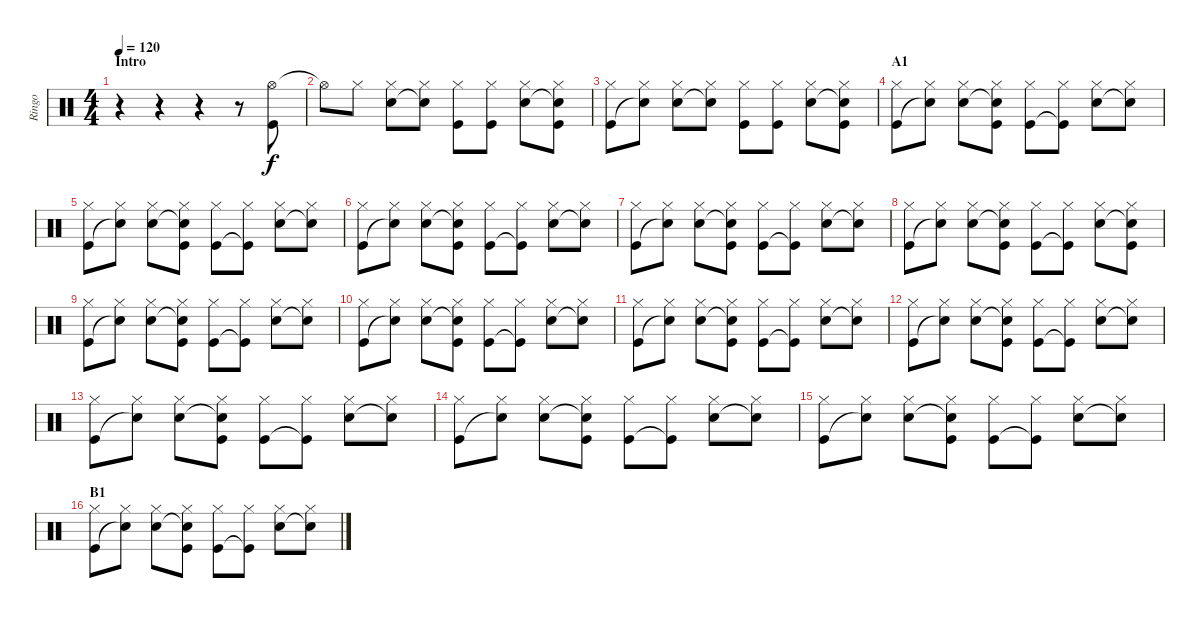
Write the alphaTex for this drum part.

\track ("Ringo" "Ringo") {instrument percussion}
\staff {score}
\articulation defaults
\ts (4 4)
\section ("" "Intro")
\tempo 120
\clef neutral
\ks c
r.4{dy f} r.4 r.4 r.8 ("Hi-Hat (open)" "Kick (hit)").8 |
"Hi-Hat (open)"{t}.8 "Hi-Hat (closed)".8 ("Hi-Hat (closed)" "Snare (hit) 2").8 ("Hi-Hat (closed)" "Snare (hit)"{t}).8 ("Hi-Hat (closed)" "Kick (hit)").8 ("Hi-Hat (closed)" "Kick (hit)").8 ("Hi-Hat (closed)" "Snare (hit) 2").8 ("Hi-Hat (closed)" "Snare (hit)"{t} "Kick (hit)").8 |
("Hi-Hat (closed)" "Kick (hit)").8 ("Hi-Hat (closed)" "Snare (hit)"{t}).8 ("Hi-Hat (closed)" "Snare (hit) 2").8 ("Hi-Hat (closed)" "Snare (hit)"{t}).8 ("Hi-Hat (closed)" "Kick (hit)").8 ("Hi-Hat (closed)" "Kick (hit)").8 ("Hi-Hat (closed)" "Snare (hit) 2").8 ("Hi-Hat (closed)" "Snare (hit)"{t} "Kick (hit)").8 |
\section ("" "A1")
("Hi-Hat (closed)" "Kick (hit)").8 ("Hi-Hat (closed)" "Snare (hit)"{t}).8 ("Hi-Hat (closed)" "Snare (hit) 2").8 ("Hi-Hat (closed)" "Snare (hit)"{t} "Kick (hit)").8 ("Hi-Hat (closed)" "Kick (hit)").8 ("Hi-Hat (closed)" "Kick (hit)"{t}).8 ("Hi-Hat (closed)" "Snare (hit) 2").8 ("Hi-Hat (closed)" "Snare (hit)"{t}).8 |
("Hi-Hat (closed)" "Kick (hit)").8 ("Hi-Hat (closed)" "Snare (hit)"{t}).8 ("Hi-Hat (closed)" "Snare (hit) 2").8 ("Hi-Hat (closed)" "Snare (hit)"{t} "Kick (hit)").8 ("Hi-Hat (closed)" "Kick (hit)").8 ("Hi-Hat (closed)" "Kick (hit)"{t}).8 ("Hi-Hat (closed)" "Snare (hit) 2").8 ("Hi-Hat (closed)" "Snare (hit)"{t}).8 |
("Hi-Hat (closed)" "Kick (hit)").8 ("Hi-Hat (closed)" "Snare (hit)"{t}).8 ("Hi-Hat (closed)" "Snare (hit) 2").8 ("Hi-Hat (closed)" "Snare (hit)"{t} "Kick (hit)").8 ("Hi-Hat (closed)" "Kick (hit)").8 ("Hi-Hat (closed)" "Kick (hit)"{t}).8 ("Hi-Hat (closed)" "Snare (hit) 2").8 ("Hi-Hat (closed)" "Snare (hit)"{t}).8 |
("Hi-Hat (closed)" "Kick (hit)").8 ("Hi-Hat (closed)" "Snare (hit)"{t}).8 ("Hi-Hat (closed)" "Snare (hit) 2").8 ("Hi-Hat (closed)" "Snare (hit)"{t} "Kick (hit)").8 ("Hi-Hat (closed)" "Kick (hit)").8 ("Hi-Hat (closed)" "Kick (hit)"{t}).8 ("Hi-Hat (closed)" "Snare (hit) 2").8 ("Hi-Hat (closed)" "Snare (hit)"{t}).8 |
("Hi-Hat (closed)" "Kick (hit)").8 ("Hi-Hat (closed)" "Snare (hit)"{t}).8 ("Hi-Hat (closed)" "Snare (hit) 2").8 ("Hi-Hat (closed)" "Snare (hit)"{t} "Kick (hit)").8 ("Hi-Hat (closed)" "Kick (hit)").8 ("Hi-Hat (closed)" "Kick (hit)"{t}).8 ("Hi-Hat (closed)" "Snare (hit) 2").8 ("Hi-Hat (closed)" "Snare (hit)"{t} "Kick (hit)").8 |
("Hi-Hat (closed)" "Kick (hit)").8 ("Hi-Hat (closed)" "Snare (hit)"{t}).8 ("Hi-Hat (closed)" "Snare (hit) 2").8 ("Hi-Hat (closed)" "Snare (hit)"{t} "Kick (hit)").8 ("Hi-Hat (closed)" "Kick (hit)").8 ("Hi-Hat (closed)" "Kick (hit)"{t}).8 ("Hi-Hat (closed)" "Snare (hit) 2").8 ("Hi-Hat (closed)" "Snare (hit)"{t}).8 |
("Hi-Hat (closed)" "Kick (hit)").8 ("Hi-Hat (closed)" "Snare (hit)"{t}).8 ("Hi-Hat (closed)" "Snare (hit) 2").8 ("Hi-Hat (closed)" "Snare (hit)"{t} "Kick (hit)").8 ("Hi-Hat (closed)" "Kick (hit)").8 ("Hi-Hat (closed)" "Kick (hit)"{t}).8 ("Hi-Hat (closed)" "Snare (hit) 2").8 ("Hi-Hat (closed)" "Snare (hit)"{t}).8 |
("Hi-Hat (closed)" "Kick (hit)").8 ("Hi-Hat (closed)" "Snare (hit)"{t}).8 ("Hi-Hat (closed)" "Snare (hit) 2").8 ("Hi-Hat (closed)" "Snare (hit)"{t} "Kick (hit)").8 ("Hi-Hat (closed)" "Kick (hit)").8 ("Hi-Hat (closed)" "Kick (hit)"{t}).8 ("Hi-Hat (closed)" "Snare (hit) 2").8 ("Hi-Hat (closed)" "Snare (hit)"{t}).8 |
("Hi-Hat (closed)" "Kick (hit)").8 ("Hi-Hat (closed)" "Snare (hit)"{t}).8 ("Hi-Hat (closed)" "Snare (hit) 2").8 ("Hi-Hat (closed)" "Snare (hit)"{t} "Kick (hit)").8 ("Hi-Hat (closed)" "Kick (hit)").8 ("Hi-Hat (closed)" "Kick (hit)"{t}).8 ("Hi-Hat (closed)" "Snare (hit) 2").8 ("Hi-Hat (closed)" "Snare (hit)"{t}).8 |
("Hi-Hat (closed)" "Kick (hit)").8 ("Hi-Hat (closed)" "Snare (hit)"{t}).8 ("Hi-Hat (closed)" "Snare (hit) 2").8 ("Hi-Hat (closed)" "Snare (hit)"{t} "Kick (hit)").8 ("Hi-Hat (closed)" "Kick (hit)").8 ("Hi-Hat (closed)" "Kick (hit)"{t}).8 ("Hi-Hat (closed)" "Snare (hit) 2").8 ("Hi-Hat (closed)" "Snare (hit)"{t}).8 |
("Hi-Hat (closed)" "Kick (hit)").8 ("Hi-Hat (closed)" "Snare (hit)"{t}).8 ("Hi-Hat (closed)" "Snare (hit) 2").8 ("Hi-Hat (closed)" "Snare (hit)"{t} "Kick (hit)").8 ("Hi-Hat (closed)" "Kick (hit)").8 ("Hi-Hat (closed)" "Kick (hit)"{t}).8 ("Hi-Hat (closed)" "Snare (hit) 2").8 ("Hi-Hat (closed)" "Snare (hit)"{t}).8 |
("Hi-Hat (closed)" "Kick (hit)").8 ("Hi-Hat (closed)" "Snare (hit)"{t}).8 ("Hi-Hat (closed)" "Snare (hit) 2").8 ("Hi-Hat (closed)" "Snare (hit)"{t} "Kick (hit)").8 ("Hi-Hat (closed)" "Kick (hit)").8 ("Hi-Hat (closed)" "Kick (hit)"{t}).8 ("Hi-Hat (closed)" "Snare (hit) 2").8 ("Hi-Hat (closed)" "Snare (hit)"{t}).8 |
\section ("" "B1")
("Hi-Hat (closed)" "Kick (hit)").8 ("Hi-Hat (closed)" "Snare (hit)"{t}).8 ("Hi-Hat (closed)" "Snare (hit) 2").8 ("Hi-Hat (closed)" "Snare (hit)"{t} "Kick (hit)").8 ("Hi-Hat (closed)" "Kick (hit)").8 ("Hi-Hat (closed)" "Kick (hit)"{t}).8 ("Hi-Hat (closed)" "Snare (hit) 2").8 ("Hi-Hat (closed)" "Snare (hit)"{t}).8
